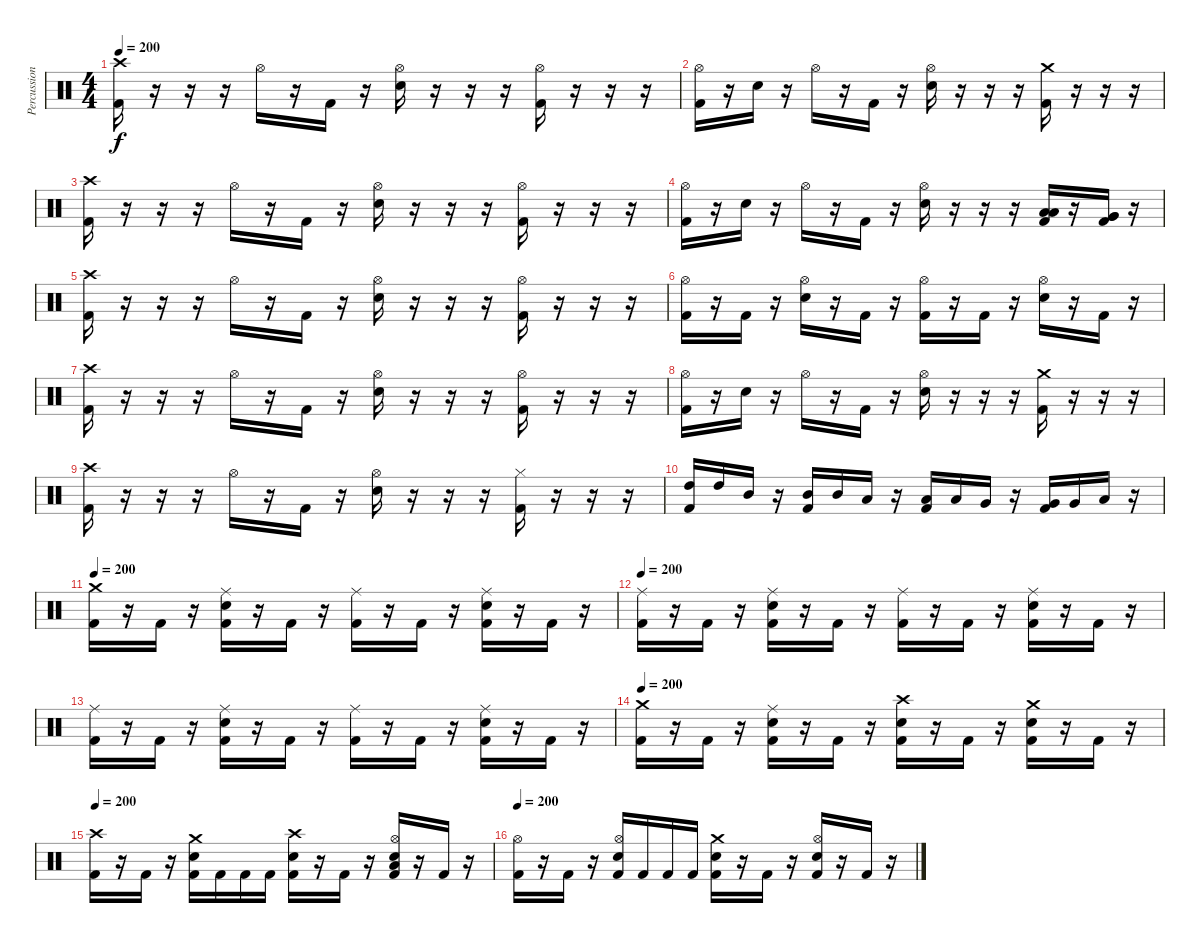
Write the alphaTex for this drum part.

\track ("Percussion" "Percussion") {instrument percussion}
\staff {score}
\articulation defaults
\ts (4 4)
\tempo 200
\clef neutral
\ks c
("Crash high (hit)" "Kick (hit) 2").16{dy f} r.16 r.16 r.16 "Hi-Hat (open)".16 r.16 "Kick (hit) 2".16 r.16 ("Hi-Hat (open)" "Snare (hit) 2").16 r.16 r.16 r.16 ("Hi-Hat (open)" "Kick (hit) 2").16 r.16 r.16 r.16 |
("Hi-Hat (open)" "Kick (hit) 2").16 r.16 "Snare (hit) 2".16 r.16 "Hi-Hat (open)".16 r.16 "Kick (hit) 2".16 r.16 ("Hi-Hat (open)" "Snare (hit) 2").16 r.16 r.16 r.16 ("Crash medium (hit)" "Kick (hit) 2").16 r.16 r.16 r.16 |
("Crash high (hit)" "Kick (hit) 2").16 r.16 r.16 r.16 "Hi-Hat (open)".16 r.16 "Kick (hit) 2".16 r.16 ("Hi-Hat (open)" "Snare (hit) 2").16 r.16 r.16 r.16 ("Hi-Hat (open)" "Kick (hit) 2").16 r.16 r.16 r.16 |
("Hi-Hat (open)" "Kick (hit) 2").16 r.16 "Snare (hit) 2".16 r.16 "Hi-Hat (open)".16 r.16 "Kick (hit) 2".16 r.16 ("Hi-Hat (open)" "Snare (hit) 2").16 r.16 r.16 r.16 ("Low Tom (hit)" "Low Tom (hit)" "Kick (hit) 2").16 r.16 ("Very Low Tom (hit)" "Very Low Tom (hit)" "Kick (hit) 2").16 r.16 |
("Crash high (hit)" "Kick (hit) 2").16 r.16 r.16 r.16 "Hi-Hat (open)".16 r.16 "Kick (hit) 2".16 r.16 ("Hi-Hat (open)" "Snare (hit) 2").16 r.16 r.16 r.16 ("Hi-Hat (open)" "Kick (hit) 2").16 r.16 r.16 r.16 |
("Hi-Hat (open)" "Kick (hit) 2").16 r.16 "Kick (hit) 2".16 r.16 ("Hi-Hat (open)" "Snare (hit) 2").16 r.16 "Kick (hit) 2".16 r.16 ("Hi-Hat (open)" "Kick (hit) 2").16 r.16 "Kick (hit) 2".16 r.16 ("Hi-Hat (open)" "Snare (hit) 2").16 r.16 "Kick (hit) 2".16 r.16 |
("Crash high (hit)" "Kick (hit) 2").16 r.16 r.16 r.16 "Hi-Hat (open)".16 r.16 "Kick (hit) 2".16 r.16 ("Hi-Hat (open)" "Snare (hit) 2").16 r.16 r.16 r.16 ("Hi-Hat (open)" "Kick (hit) 2").16 r.16 r.16 r.16 |
("Hi-Hat (open)" "Kick (hit) 2").16 r.16 "Snare (hit) 2".16 r.16 "Hi-Hat (open)".16 r.16 "Kick (hit) 2".16 r.16 ("Hi-Hat (open)" "Snare (hit) 2").16 r.16 r.16 r.16 ("Crash medium (hit)" "Kick (hit) 2").16 r.16 r.16 r.16 |
("Crash high (hit)" "Kick (hit) 2").16 r.16 r.16 r.16 "Hi-Hat (open)".16 r.16 "Kick (hit) 2".16 r.16 ("Hi-Hat (open)" "Snare (hit) 2").16 r.16 r.16 r.16 ("Hi-Hat (closed)" "Kick (hit) 2").16 r.16 r.16 r.16 |
("High Tom (hit)" "Kick (hit) 2").16 "High Tom (hit)".16 "Mid Tom (hit)".16 r.16 ("Mid Tom (hit)" "Kick (hit) 2").16 "Mid Tom (hit)".16 "Low Tom (hit)".16 r.16 ("Low Tom (hit)" "Kick (hit) 2").16 "Low Tom (hit)".16 "Very Low Tom (hit)".16 r.16 ("Very Low Tom (hit)" "Kick (hit) 2").16 "Very Low Tom (hit)".16 "Low Floor Tom (hit)".16 r.16 |
\tempo 200
("Crash medium (hit)" "Kick (hit) 2").16 r.16 "Kick (hit) 2".16 r.16 ("Ride (middle)" "Snare (hit) 2" "Kick (hit) 2").16 r.16 "Kick (hit) 2".16 r.16 ("Ride (middle)" "Kick (hit) 2").16 r.16 "Kick (hit) 2".16 r.16 ("Ride (middle)" "Snare (hit) 2" "Kick (hit) 2").16 r.16 "Kick (hit) 2".16 r.16 |
\tempo 200
("Ride (middle)" "Kick (hit) 2").16 r.16 "Kick (hit) 2".16 r.16 ("Ride (middle)" "Snare (hit) 2" "Kick (hit) 2").16 r.16 "Kick (hit) 2".16 r.16 ("Ride (middle)" "Kick (hit) 2").16 r.16 "Kick (hit) 2".16 r.16 ("Ride (middle)" "Snare (hit) 2" "Kick (hit) 2").16 r.16 "Kick (hit) 2".16 r.16 |
("Ride (middle)" "Kick (hit) 2").16 r.16 "Kick (hit) 2".16 r.16 ("Ride (middle)" "Snare (hit) 2" "Kick (hit) 2").16 r.16 "Kick (hit) 2".16 r.16 ("Ride (middle)" "Kick (hit) 2").16 r.16 "Kick (hit) 2".16 r.16 ("Ride (middle)" "Snare (hit) 2" "Kick (hit) 2").16 r.16 "Kick (hit) 2".16 r.16 |
\tempo 200
("Crash medium (hit)" "Kick (hit) 2").16 r.16 "Kick (hit) 2".16 r.16 ("Ride (middle)" "Snare (hit) 2" "Kick (hit) 2").16 r.16 "Kick (hit) 2".16 r.16 ("Crash high (hit)" "Snare (hit) 2" "Kick (hit) 2").16 r.16 "Kick (hit) 2".16 r.16 ("Crash medium (hit)" "Snare (hit) 2" "Kick (hit) 2").16 r.16 "Kick (hit) 2".16 r.16 |
\tempo 200
("Crash high (hit)" "Kick (hit) 2").16 r.16 "Kick (hit) 2".16 r.16 ("Crash medium (hit)" "Snare (hit) 2" "Kick (hit) 2").16 "Kick (hit) 2".16 "Kick (hit) 2".16 "Kick (hit) 2".16 ("Crash high (hit)" "Snare (hit) 2" "Kick (hit) 2").16 r.16 "Kick (hit) 2".16 r.16 ("Low Tom (hit)" "Hi-Hat (open)" "Snare (hit) 2" "Kick (hit) 2").16 r.16 "Kick (hit) 2".16 r.16 |
\tempo 200
("Hi-Hat (open)" "Kick (hit) 2").16 r.16 "Kick (hit) 2".16 r.16 ("Hi-Hat (open)" "Snare (hit) 2" "Kick (hit) 2").16 "Kick (hit) 2".16 "Kick (hit) 2".16 "Kick (hit) 2".16 ("Crash medium (hit)" "Snare (hit) 2" "Kick (hit) 2").16 r.16 "Kick (hit) 2".16 r.16 ("Hi-Hat (open)" "Snare (hit) 2" "Kick (hit) 2").16 r.16 "Kick (hit) 2".16 r.16
